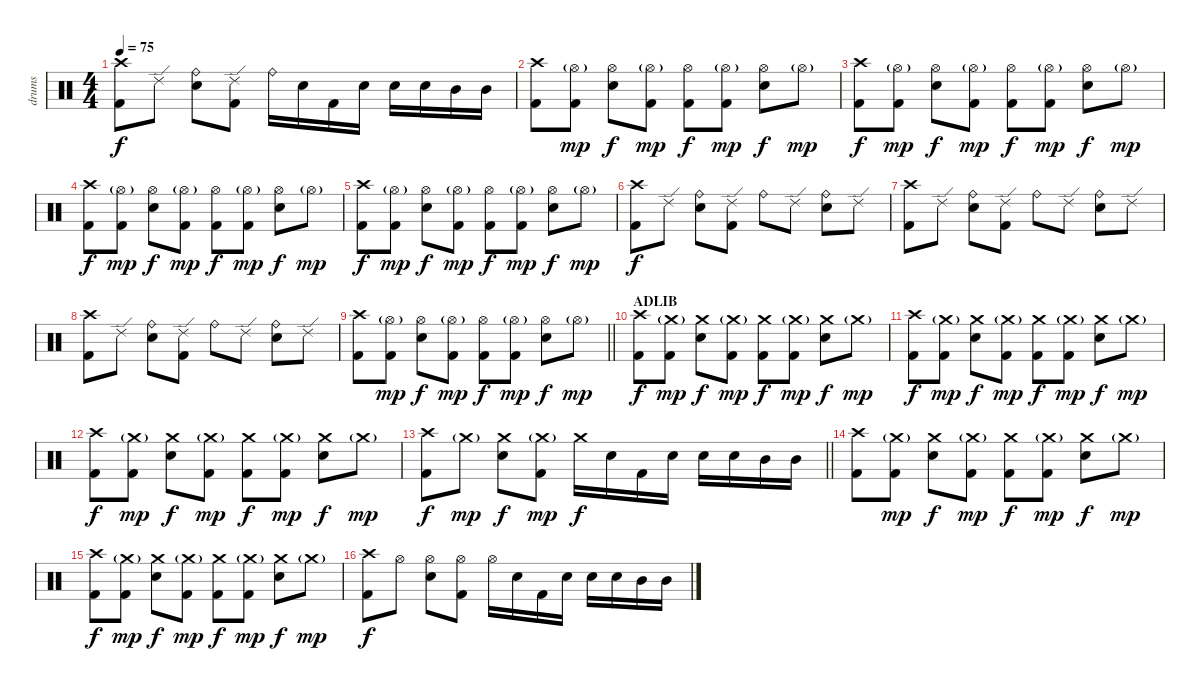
\track ("drums" "drums") {instrument percussion}
\staff
\articulation defaults
\ts (4 4)
\tempo 75
\clef neutral
\ks c
("Crash high (hit)" "Kick (hit) 2").8{dy f} "Ride (edge) 2".8 ("Ride (bell)" "Electric Snare (hit)").8 ("Ride (edge) 2" "Kick (hit) 2").8 "Ride (bell)".16 "Electric Snare (hit)".16 "Kick (hit) 2".16 "Electric Snare (hit)".16 "Electric Snare (hit)".16 "Electric Snare (hit)".16 "Mid Tom (hit)".16 "Mid Tom (hit)".16 |
("Crash high (hit)" "Kick (hit) 2").8 ("Hi-Hat (open)"{g} "Kick (hit) 2").8{dy mp} ("Hi-Hat (open)" "Electric Snare (hit)").8{dy f} ("Hi-Hat (open)"{g} "Kick (hit) 2").8{dy mp} ("Hi-Hat (open)" "Kick (hit) 2").8{dy f} ("Hi-Hat (open)"{g} "Kick (hit) 2").8{dy mp} ("Hi-Hat (open)" "Electric Snare (hit)").8{dy f} "Hi-Hat (open)"{g}.8{dy mp} |
("Crash high (hit)" "Kick (hit) 2").8{dy f} ("Hi-Hat (open)"{g} "Kick (hit) 2").8{dy mp} ("Hi-Hat (open)" "Electric Snare (hit)").8{dy f} ("Hi-Hat (open)"{g} "Kick (hit) 2").8{dy mp} ("Hi-Hat (open)" "Kick (hit) 2").8{dy f} ("Hi-Hat (open)"{g} "Kick (hit) 2").8{dy mp} ("Hi-Hat (open)" "Electric Snare (hit)").8{dy f} "Hi-Hat (open)"{g}.8{dy mp} |
("Crash high (hit)" "Kick (hit) 2").8{dy f} ("Hi-Hat (open)"{g} "Kick (hit) 2").8{dy mp} ("Hi-Hat (open)" "Electric Snare (hit)").8{dy f} ("Hi-Hat (open)"{g} "Kick (hit) 2").8{dy mp} ("Hi-Hat (open)" "Kick (hit) 2").8{dy f} ("Hi-Hat (open)"{g} "Kick (hit) 2").8{dy mp} ("Hi-Hat (open)" "Electric Snare (hit)").8{dy f} "Hi-Hat (open)"{g}.8{dy mp} |
("Crash high (hit)" "Kick (hit) 2").8{dy f} ("Hi-Hat (open)"{g} "Kick (hit) 2").8{dy mp} ("Hi-Hat (open)" "Electric Snare (hit)").8{dy f} ("Hi-Hat (open)"{g} "Kick (hit) 2").8{dy mp} ("Hi-Hat (open)" "Kick (hit) 2").8{dy f} ("Hi-Hat (open)"{g} "Kick (hit) 2").8{dy mp} ("Hi-Hat (open)" "Electric Snare (hit)").8{dy f} "Hi-Hat (open)"{g}.8{dy mp} |
("Crash high (hit)" "Kick (hit) 2").8{dy f} "Ride (edge) 2".8 ("Ride (bell)" "Electric Snare (hit)").8 ("Ride (edge) 2" "Kick (hit) 2").8 "Ride (bell)".8 "Ride (edge) 2".8 ("Ride (bell)" "Electric Snare (hit)").8 "Ride (edge) 2".8 |
("Crash high (hit)" "Kick (hit) 2").8 "Ride (edge) 2".8 ("Ride (bell)" "Electric Snare (hit)").8 ("Ride (edge) 2" "Kick (hit) 2").8 "Ride (bell)".8 "Ride (edge) 2".8 ("Ride (bell)" "Electric Snare (hit)").8 "Ride (edge) 2".8 |
("Crash high (hit)" "Kick (hit) 2").8 "Ride (edge) 2".8 ("Ride (bell)" "Electric Snare (hit)").8 ("Ride (edge) 2" "Kick (hit) 2").8 "Ride (bell)".8 "Ride (edge) 2".8 ("Ride (bell)" "Electric Snare (hit)").8 "Ride (edge) 2".8 |
\barLineRight lightlight
("Crash high (hit)" "Kick (hit) 2").8 ("Hi-Hat (open)"{g} "Kick (hit) 2").8{dy mp} ("Hi-Hat (open)" "Electric Snare (hit)").8{dy f} ("Hi-Hat (open)"{g} "Kick (hit) 2").8{dy mp} ("Hi-Hat (open)" "Kick (hit) 2").8{dy f} ("Hi-Hat (open)"{g} "Kick (hit) 2").8{dy mp} ("Hi-Hat (open)" "Electric Snare (hit)").8{dy f} "Hi-Hat (open)"{g}.8{dy mp} |
\section ("" "ADLIB")
("Crash high (hit)" "Kick (hit) 2").8{dy f} ("Crash medium (hit)"{g} "Kick (hit) 2").8{dy mp} ("Crash medium (hit)" "Electric Snare (hit)").8{dy f} ("Crash medium (hit)"{g} "Kick (hit) 2").8{dy mp} ("Crash medium (hit)" "Kick (hit) 2").8{dy f} ("Crash medium (hit)"{g} "Kick (hit) 2").8{dy mp} ("Crash medium (hit)" "Electric Snare (hit)").8{dy f} "Crash medium (hit)"{g}.8{dy mp} |
("Crash high (hit)" "Kick (hit) 2").8{dy f} ("Crash medium (hit)"{g} "Kick (hit) 2").8{dy mp} ("Crash medium (hit)" "Electric Snare (hit)").8{dy f} ("Crash medium (hit)"{g} "Kick (hit) 2").8{dy mp} ("Crash medium (hit)" "Kick (hit) 2").8{dy f} ("Crash medium (hit)"{g} "Kick (hit) 2").8{dy mp} ("Crash medium (hit)" "Electric Snare (hit)").8{dy f} "Crash medium (hit)"{g}.8{dy mp} |
("Crash high (hit)" "Kick (hit) 2").8{dy f} ("Crash medium (hit)"{g} "Kick (hit) 2").8{dy mp} ("Crash medium (hit)" "Electric Snare (hit)").8{dy f} ("Crash medium (hit)"{g} "Kick (hit) 2").8{dy mp} ("Crash medium (hit)" "Kick (hit) 2").8{dy f} ("Crash medium (hit)"{g} "Kick (hit) 2").8{dy mp} ("Crash medium (hit)" "Electric Snare (hit)").8{dy f} "Crash medium (hit)"{g}.8{dy mp} |
\barLineRight lightlight
("Crash high (hit)" "Kick (hit) 2").8{dy f} "Crash medium (hit)"{g}.8{dy mp} ("Crash medium (hit)" "Electric Snare (hit)").8{dy f} ("Crash medium (hit)"{g} "Kick (hit) 2").8{dy mp} "Crash medium (hit)".16{dy f} "Electric Snare (hit)".16 "Kick (hit) 2".16 "Electric Snare (hit)".16 "Electric Snare (hit)".16 "Electric Snare (hit)".16 "Mid Tom (hit)".16 "Mid Tom (hit)".16 |
("Crash high (hit)" "Kick (hit) 2").8 ("Crash medium (hit)"{g} "Kick (hit) 2").8{dy mp} ("Crash medium (hit)" "Electric Snare (hit)").8{dy f} ("Crash medium (hit)"{g} "Kick (hit) 2").8{dy mp} ("Crash medium (hit)" "Kick (hit) 2").8{dy f} ("Crash medium (hit)"{g} "Kick (hit) 2").8{dy mp} ("Crash medium (hit)" "Electric Snare (hit)").8{dy f} "Crash medium (hit)"{g}.8{dy mp} |
("Crash high (hit)" "Kick (hit) 2").8{dy f} ("Crash medium (hit)"{g} "Kick (hit) 2").8{dy mp} ("Crash medium (hit)" "Electric Snare (hit)").8{dy f} ("Crash medium (hit)"{g} "Kick (hit) 2").8{dy mp} ("Crash medium (hit)" "Kick (hit) 2").8{dy f} ("Crash medium (hit)"{g} "Kick (hit) 2").8{dy mp} ("Crash medium (hit)" "Electric Snare (hit)").8{dy f} "Crash medium (hit)"{g}.8{dy mp} |
("Crash high (hit)" "Kick (hit) 2").8{dy f} "Hi-Hat (open)".8 ("Hi-Hat (open)" "Electric Snare (hit)").8 ("Hi-Hat (open)" "Kick (hit) 2").8 "Hi-Hat (open)".16 "Electric Snare (hit)".16 "Kick (hit) 2".16 "Electric Snare (hit)".16 "Electric Snare (hit)".16 "Electric Snare (hit)".16 "Mid Tom (hit)".16 "Mid Tom (hit)".16
